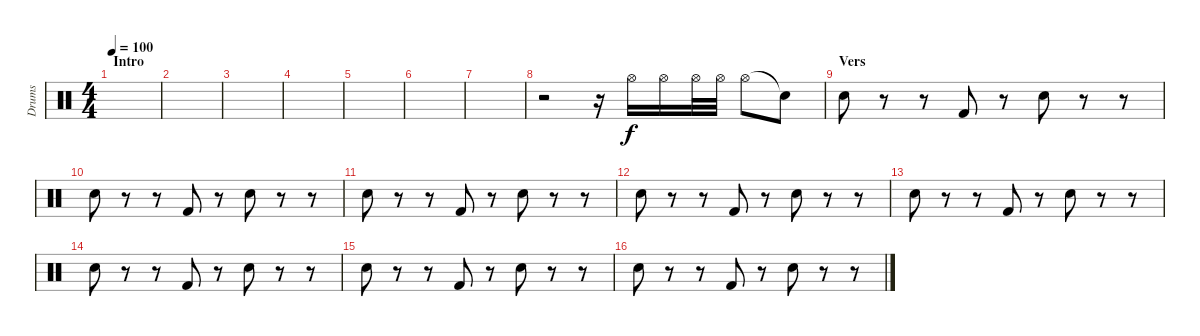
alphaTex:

\track ("Drums" "Drums") {instrument percussion}
\staff {score}
\articulation defaults
\ts (4 4)
\section ("" "Intro")
\tempo 100
\clef neutral
\ks c
|
|
|
|
|
|
|
r.2 r.16 "Hi-Hat (open)".16 "Hi-Hat (open)".16 "Hi-Hat (open)".32 "Hi-Hat (open)".32 "Hi-Hat (open)".8 "Snare (hit)"{t}.8 |
\section ("" "Vers")
"Snare (hit) 2".8 r.8 r.8 "Kick (hit) 2".8 r.8 "Snare (hit) 2".8 r.8 r.8 |
"Snare (hit) 2".8 r.8 r.8 "Kick (hit) 2".8 r.8 "Snare (hit) 2".8 r.8 r.8 |
"Snare (hit) 2".8 r.8 r.8 "Kick (hit) 2".8 r.8 "Snare (hit) 2".8 r.8 r.8 |
"Snare (hit) 2".8 r.8 r.8 "Kick (hit) 2".8 r.8 "Snare (hit) 2".8 r.8 r.8 |
"Snare (hit) 2".8 r.8 r.8 "Kick (hit) 2".8 r.8 "Snare (hit) 2".8 r.8 r.8 |
"Snare (hit) 2".8 r.8 r.8 "Kick (hit) 2".8 r.8 "Snare (hit) 2".8 r.8 r.8 |
"Snare (hit) 2".8 r.8 r.8 "Kick (hit) 2".8 r.8 "Snare (hit) 2".8 r.8 r.8 |
"Snare (hit) 2".8 r.8 r.8 "Kick (hit) 2".8 r.8 "Snare (hit) 2".8 r.8 r.8
